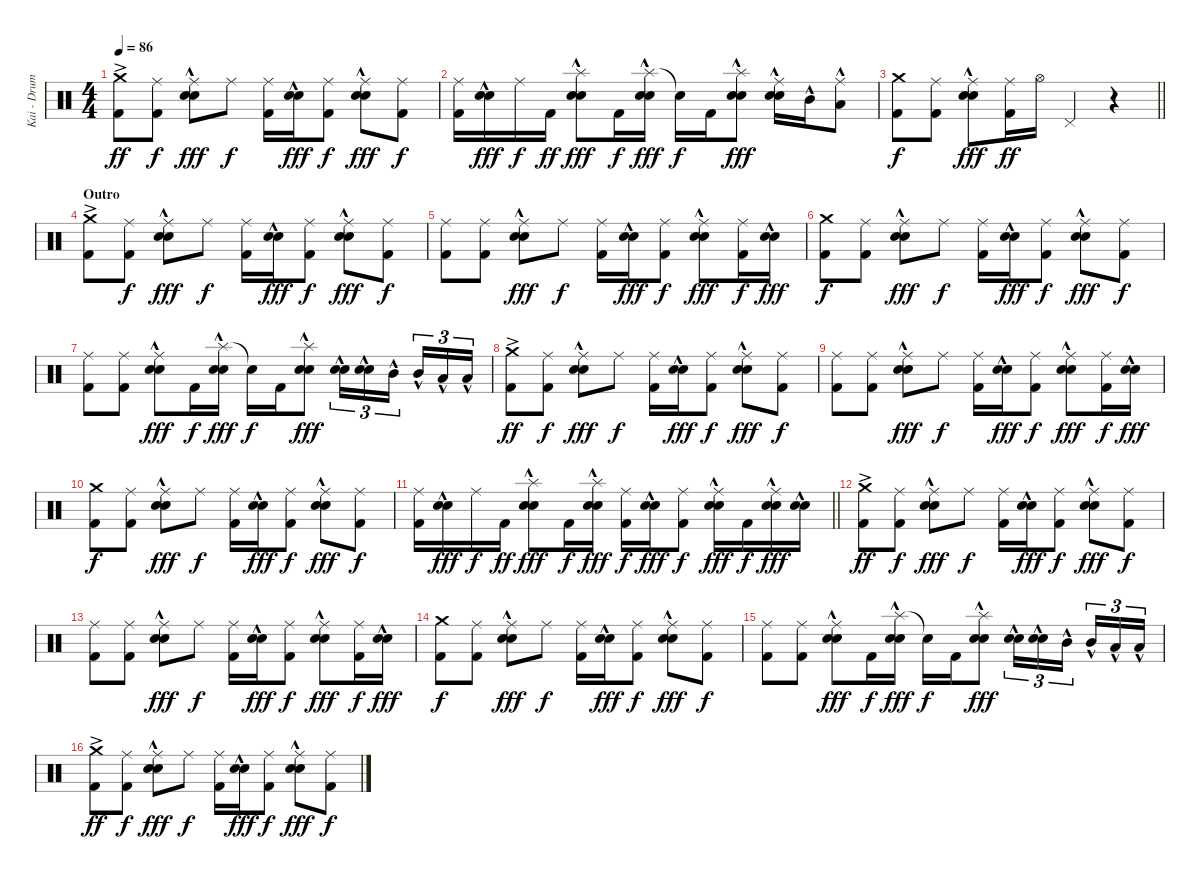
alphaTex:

\track ("Kai - Drums" "Kai - Drum") {instrument percussion}
\staff {score}
\articulation defaults
\ts (4 4)
\tempo 86
\clef neutral
\ks c
("Crash medium (hit)"{ac} "Kick (hit) 2").8{dy ff} ("Ride (middle)" "Kick (hit) 2").8{dy f} ("Ride (middle)" "Electric Snare (hit)"{hac} "Snare (hit) 2"{hac}).8{dy fff} "Ride (middle)".8{dy f} ("Ride (middle)" "Kick (hit) 2").16 ("Electric Snare (hit)"{hac} "Snare (hit) 2"{hac}).16{dy fff} ("Ride (middle)" "Kick (hit) 2").8{dy f} ("Ride (middle)" "Electric Snare (hit)"{hac} "Snare (hit) 2"{hac}).8{dy fff} ("Ride (middle)" "Kick (hit) 2").8{dy f} |
("Ride (middle)" "Kick (hit) 2").16 ("Electric Snare (hit)"{hac} "Snare (hit) 2"{hac}).16{dy fff} "Ride (middle)".16{dy f} "Kick (hit) 2".16{dy ff} ("Splash (hit)"{hac} "Electric Snare (hit)"{hac} "Snare (hit) 2"{hac}).8{dy fff} "Kick (hit) 2".16{dy f} ("Splash (hit)"{hac} "Electric Snare (hit)"{hac} "Snare (hit) 2"{hac}).16{dy fff} "Snare (hit)"{t}.16{dy f} "Kick (hit) 2".16 ("Splash (hit)"{hac} "Electric Snare (hit)"{hac} "Snare (hit) 2"{hac}).8{dy fff} ("Ride (middle)" "Electric Snare (hit)"{hac} "Snare (hit) 2"{hac}).16 "Mid Tom (hit)"{hac}.16 ("Ride (middle)" "Low Tom (hit)"{hac}).8 |
\barLineRight lightlight
("Crash medium (hit)" "Kick (hit) 2").8{dy f} ("Ride (middle)" "Kick (hit) 2").8 ("Ride (middle)" "Electric Snare (hit)"{hac} "Snare (hit) 2"{hac}).8{dy fff} ("Ride (middle)" "Kick (hit) 2").16{dy ff} "Hi-Hat (open)".16 "Pedal Hi-Hat (hit)".4 r.4 |
\section ("" "Outro")
("Crash medium (hit)"{ac} "Kick (hit) 2").8 ("Ride (middle)" "Kick (hit) 2").8{dy f} ("Ride (middle)" "Electric Snare (hit)"{hac} "Snare (hit) 2"{hac}).8{dy fff} "Ride (middle)".8{dy f} ("Ride (middle)" "Kick (hit) 2").16 ("Electric Snare (hit)"{hac} "Snare (hit) 2"{hac}).16{dy fff} ("Ride (middle)" "Kick (hit) 2").8{dy f} ("Ride (middle)" "Electric Snare (hit)"{hac} "Snare (hit) 2"{hac}).8{dy fff} ("Ride (middle)" "Kick (hit) 2").8{dy f} |
("Ride (middle)" "Kick (hit) 2").8 ("Ride (middle)" "Kick (hit) 2").8 ("Ride (middle)" "Electric Snare (hit)"{hac} "Snare (hit) 2"{hac}).8{dy fff} "Ride (middle)".8{dy f} ("Ride (middle)" "Kick (hit) 2").16 ("Electric Snare (hit)"{hac} "Snare (hit) 2"{hac}).16{dy fff} ("Ride (middle)" "Kick (hit) 2").8{dy f} ("Ride (middle)" "Electric Snare (hit)"{hac} "Snare (hit) 2"{hac}).8{dy fff} ("Ride (middle)" "Kick (hit) 2").16{dy f} ("Electric Snare (hit)"{hac} "Snare (hit) 2"{hac}).16{dy fff} |
("Crash medium (hit)" "Kick (hit) 2").8{dy f} ("Ride (middle)" "Kick (hit) 2").8 ("Ride (middle)" "Electric Snare (hit)"{hac} "Snare (hit) 2"{hac}).8{dy fff} "Ride (middle)".8{dy f} ("Ride (middle)" "Kick (hit) 2").16 ("Electric Snare (hit)"{hac} "Snare (hit) 2"{hac}).16{dy fff} ("Ride (middle)" "Kick (hit) 2").8{dy f} ("Ride (middle)" "Electric Snare (hit)"{hac} "Snare (hit) 2"{hac}).8{dy fff} ("Ride (middle)" "Kick (hit) 2").8{dy f} |
("Ride (middle)" "Kick (hit) 2").8 ("Ride (middle)" "Kick (hit) 2").8 ("Ride (middle)" "Electric Snare (hit)"{hac} "Snare (hit) 2"{hac}).8{dy fff} "Kick (hit) 2".16{dy f} ("Splash (hit)"{hac} "Electric Snare (hit)"{hac} "Snare (hit) 2"{hac}).16{dy fff} "Snare (hit)"{t}.16{dy f} "Kick (hit) 2".16 ("Splash (hit)"{hac} "Electric Snare (hit)"{hac} "Snare (hit) 2"{hac}).8{dy fff} ("Electric Snare (hit)"{hac} "Snare (hit) 2").16{tu (3 2)} ("Electric Snare (hit)"{hac} "Snare (hit) 2").16{tu (3 2)} "Mid Tom (hit)"{hac}.16{tu (3 2) beam splitsecondary} "Mid Tom (hit)"{hac}.16{tu (3 2)} "Low Tom (hit)"{hac}.16{tu (3 2)} "Low Tom (hit)"{hac}.16{tu (3 2)} |
("Crash medium (hit)"{ac} "Kick (hit) 2").8{dy ff} ("Ride (middle)" "Kick (hit) 2").8{dy f} ("Ride (middle)" "Electric Snare (hit)"{hac} "Snare (hit) 2"{hac}).8{dy fff} "Ride (middle)".8{dy f} ("Ride (middle)" "Kick (hit) 2").16 ("Electric Snare (hit)"{hac} "Snare (hit) 2"{hac}).16{dy fff} ("Ride (middle)" "Kick (hit) 2").8{dy f} ("Ride (middle)" "Electric Snare (hit)"{hac} "Snare (hit) 2"{hac}).8{dy fff} ("Ride (middle)" "Kick (hit) 2").8{dy f} |
("Ride (middle)" "Kick (hit) 2").8 ("Ride (middle)" "Kick (hit) 2").8 ("Ride (middle)" "Electric Snare (hit)"{hac} "Snare (hit) 2"{hac}).8{dy fff} "Ride (middle)".8{dy f} ("Ride (middle)" "Kick (hit) 2").16 ("Electric Snare (hit)"{hac} "Snare (hit) 2"{hac}).16{dy fff} ("Ride (middle)" "Kick (hit) 2").8{dy f} ("Ride (middle)" "Electric Snare (hit)"{hac} "Snare (hit) 2"{hac}).8{dy fff} ("Ride (middle)" "Kick (hit) 2").16{dy f} ("Electric Snare (hit)"{hac} "Snare (hit) 2"{hac}).16{dy fff} |
("Crash medium (hit)" "Kick (hit) 2").8{dy f} ("Ride (middle)" "Kick (hit) 2").8 ("Ride (middle)" "Electric Snare (hit)"{hac} "Snare (hit) 2"{hac}).8{dy fff} "Ride (middle)".8{dy f} ("Ride (middle)" "Kick (hit) 2").16 ("Electric Snare (hit)"{hac} "Snare (hit) 2"{hac}).16{dy fff} ("Ride (middle)" "Kick (hit) 2").8{dy f} ("Ride (middle)" "Electric Snare (hit)"{hac} "Snare (hit) 2"{hac}).8{dy fff} ("Ride (middle)" "Kick (hit) 2").8{dy f} |
\barLineRight lightlight
("Ride (middle)" "Kick (hit) 2").16 ("Electric Snare (hit)"{hac} "Snare (hit) 2"{hac}).16{dy fff} "Ride (middle)".16{dy f} "Kick (hit) 2".16{dy ff} ("Splash (hit)"{hac} "Electric Snare (hit)"{hac} "Snare (hit) 2"{hac}).8{dy fff} "Kick (hit) 2".16{dy f} ("Splash (hit)"{hac} "Electric Snare (hit)"{hac} "Snare (hit) 2"{hac}).16{dy fff} ("Ride (middle)" "Kick (hit) 2").16{dy f} ("Electric Snare (hit)"{hac} "Snare (hit) 2"{hac}).16{dy fff} ("Ride (middle)" "Kick (hit) 2").8{dy f} ("Ride (middle)" "Electric Snare (hit)"{hac} "Snare (hit) 2"{hac}).16{dy fff} "Kick (hit) 2".16{dy f} ("Ride (middle)" "Electric Snare (hit)"{hac} "Snare (hit) 2"{hac}).16{dy fff} ("Electric Snare (hit)"{hac} "Snare (hit) 2"{hac}).16 |
\section ("" "")
("Crash medium (hit)"{ac} "Kick (hit) 2").8{dy ff} ("Ride (middle)" "Kick (hit) 2").8{dy f} ("Ride (middle)" "Electric Snare (hit)"{hac} "Snare (hit) 2"{hac}).8{dy fff} "Ride (middle)".8{dy f} ("Ride (middle)" "Kick (hit) 2").16 ("Electric Snare (hit)"{hac} "Snare (hit) 2"{hac}).16{dy fff} ("Ride (middle)" "Kick (hit) 2").8{dy f} ("Ride (middle)" "Electric Snare (hit)"{hac} "Snare (hit) 2"{hac}).8{dy fff} ("Ride (middle)" "Kick (hit) 2").8{dy f} |
("Ride (middle)" "Kick (hit) 2").8 ("Ride (middle)" "Kick (hit) 2").8 ("Ride (middle)" "Electric Snare (hit)"{hac} "Snare (hit) 2"{hac}).8{dy fff} "Ride (middle)".8{dy f} ("Ride (middle)" "Kick (hit) 2").16 ("Electric Snare (hit)"{hac} "Snare (hit) 2"{hac}).16{dy fff} ("Ride (middle)" "Kick (hit) 2").8{dy f} ("Ride (middle)" "Electric Snare (hit)"{hac} "Snare (hit) 2"{hac}).8{dy fff} ("Ride (middle)" "Kick (hit) 2").16{dy f} ("Electric Snare (hit)"{hac} "Snare (hit) 2"{hac}).16{dy fff} |
("Crash medium (hit)" "Kick (hit) 2").8{dy f} ("Ride (middle)" "Kick (hit) 2").8 ("Ride (middle)" "Electric Snare (hit)"{hac} "Snare (hit) 2"{hac}).8{dy fff} "Ride (middle)".8{dy f} ("Ride (middle)" "Kick (hit) 2").16 ("Electric Snare (hit)"{hac} "Snare (hit) 2"{hac}).16{dy fff} ("Ride (middle)" "Kick (hit) 2").8{dy f} ("Ride (middle)" "Electric Snare (hit)"{hac} "Snare (hit) 2"{hac}).8{dy fff} ("Ride (middle)" "Kick (hit) 2").8{dy f} |
("Ride (middle)" "Kick (hit) 2").8 ("Ride (middle)" "Kick (hit) 2").8 ("Ride (middle)" "Electric Snare (hit)"{hac} "Snare (hit) 2"{hac}).8{dy fff} "Kick (hit) 2".16{dy f} ("Splash (hit)"{hac} "Electric Snare (hit)"{hac} "Snare (hit) 2"{hac}).16{dy fff} "Snare (hit)"{t}.16{dy f} "Kick (hit) 2".16 ("Splash (hit)"{hac} "Electric Snare (hit)"{hac} "Snare (hit) 2"{hac}).8{dy fff} ("Electric Snare (hit)"{hac} "Snare (hit) 2").16{tu (3 2)} ("Electric Snare (hit)"{hac} "Snare (hit) 2").16{tu (3 2)} "Mid Tom (hit)"{hac}.16{tu (3 2) beam splitsecondary} "Mid Tom (hit)"{hac}.16{tu (3 2)} "Low Tom (hit)"{hac}.16{tu (3 2)} "Low Tom (hit)"{hac}.16{tu (3 2)} |
("Crash medium (hit)"{ac} "Kick (hit) 2").8{dy ff} ("Ride (middle)" "Kick (hit) 2").8{dy f} ("Ride (middle)" "Electric Snare (hit)"{hac} "Snare (hit) 2"{hac}).8{dy fff} "Ride (middle)".8{dy f} ("Ride (middle)" "Kick (hit) 2").16 ("Electric Snare (hit)"{hac} "Snare (hit) 2"{hac}).16{dy fff} ("Ride (middle)" "Kick (hit) 2").8{dy f} ("Ride (middle)" "Electric Snare (hit)"{hac} "Snare (hit) 2"{hac}).8{dy fff} ("Ride (middle)" "Kick (hit) 2").8{dy f}
